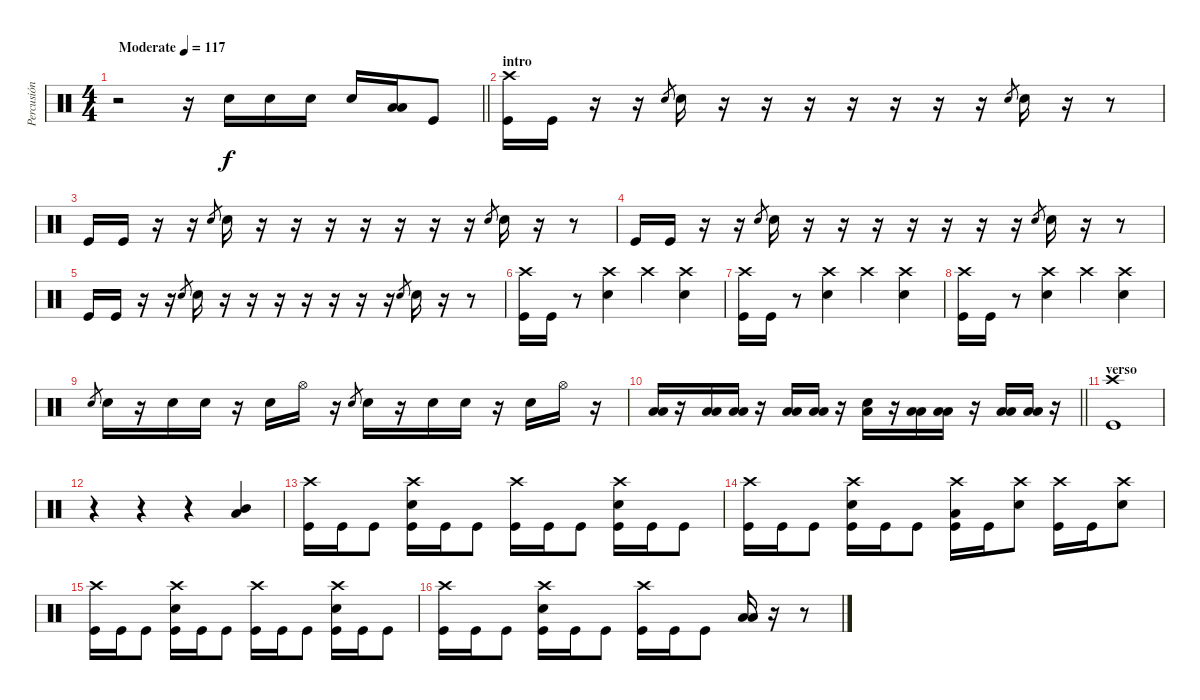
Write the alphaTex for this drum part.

\track ("Percusión" "Percusión") {instrument percussion}
\staff {score}
\articulation defaults
\ts (4 4)
\tempo (117 "Moderate")
\clef neutral
\barLineRight lightlight
\ks c
r.2{dy f} r.16 "Electric Snare (hit)".16 "Electric Snare (hit)".16 "Electric Snare (hit)".16 "Electric Snare (hit)".16 ("Low Tom (hit)" "Low Floor Tom (hit)").16 "Kick (hit)".8 |
\section ("" "intro")
\ks aminor
("Crash high (hit)" "Kick (hit)").16 "Kick (hit)".16 r.16 r.16 "Electric Snare (hit)".8{gr} "Electric Snare (hit)".16 r.16 r.16 r.16 r.16 r.16 r.16 r.16 "Electric Snare (hit)".8{gr} "Electric Snare (hit)".16 r.16 r.8 |
"Kick (hit)".16 "Kick (hit)".16 r.16 r.16 "Electric Snare (hit)".8{gr} "Electric Snare (hit)".16 r.16 r.16 r.16 r.16 r.16 r.16 r.16 "Electric Snare (hit)".8{gr} "Electric Snare (hit)".16 r.16 r.8 |
"Kick (hit)".16 "Kick (hit)".16 r.16 r.16 "Electric Snare (hit)".8{gr} "Electric Snare (hit)".16 r.16 r.16 r.16 r.16 r.16 r.16 r.16 "Electric Snare (hit)".8{gr} "Electric Snare (hit)".16 r.16 r.8 |
"Kick (hit)".16 "Kick (hit)".16 r.16 r.16 "Electric Snare (hit)".8{gr} "Electric Snare (hit)".16 r.16 r.16 r.16 r.16 r.16 r.16 r.16 "Electric Snare (hit)".8{gr} "Electric Snare (hit)".16 r.16 r.8 |
("Crash high (hit)" "Kick (hit)").16 "Kick (hit)".16 r.8 ("Crash high (hit)" "Electric Snare (hit)").4 "Crash high (hit)".4 ("Crash high (hit)" "Electric Snare (hit)").4 |
("Crash high (hit)" "Kick (hit)").16 "Kick (hit)".16 r.8 ("Crash high (hit)" "Electric Snare (hit)").4 "Crash high (hit)".4 ("Crash high (hit)" "Electric Snare (hit)").4 |
("Crash high (hit)" "Kick (hit)").16 "Kick (hit)".16 r.8 ("Crash high (hit)" "Electric Snare (hit)").4 "Crash high (hit)".4 ("Crash high (hit)" "Electric Snare (hit)").4 |
"Electric Snare (hit)".8{gr} "Electric Snare (hit)".16 r.16 "Electric Snare (hit)".16 "Electric Snare (hit)".16 r.16 "Electric Snare (hit)".16 "Hi-Hat (open)".16 r.16 "Electric Snare (hit)".8{gr} "Electric Snare (hit)".16 r.16 "Electric Snare (hit)".16 "Electric Snare (hit)".16 r.16 "Electric Snare (hit)".16 "Hi-Hat (open)".16 r.16 |
\barLineRight lightlight
("Low Tom (hit)" "Low Floor Tom (hit)").16 r.16 ("Low Tom (hit)" "Low Floor Tom (hit)").16 ("Low Tom (hit)" "Low Floor Tom (hit)").16 r.16 ("Low Tom (hit)" "Low Floor Tom (hit)").16 ("Low Tom (hit)" "Low Floor Tom (hit)").16 r.16 ("Electric Snare (hit)" "Low Floor Tom (hit)").16 r.16 ("Low Tom (hit)" "Low Floor Tom (hit)").16 ("Low Tom (hit)" "Low Floor Tom (hit)").16 r.16 ("Low Tom (hit)" "Low Floor Tom (hit)").16 ("Low Tom (hit)" "Low Floor Tom (hit)").16 r.16 |
\section ("" "verso")
("Crash high (hit)" "Kick (hit)").1 |
r.4 r.4 r.4 ("Mid Tom (hit)" "Low Floor Tom (hit)").4 |
("Crash high (hit)" "Kick (hit)").16 "Kick (hit)".16 "Kick (hit)".8 ("Crash high (hit)" "Electric Snare (hit)" "Kick (hit)").16 "Kick (hit)".16 "Kick (hit)".8 ("Crash high (hit)" "Kick (hit)").16 "Kick (hit)".16 "Kick (hit)".8 ("Crash high (hit)" "Electric Snare (hit)" "Kick (hit)").16 "Kick (hit)".16 "Kick (hit)".8 |
("Crash high (hit)" "Kick (hit)").16 "Kick (hit)".16 "Kick (hit)".8 ("Crash high (hit)" "Electric Snare (hit)" "Kick (hit)").16 "Kick (hit)".16 "Kick (hit)".8 ("Crash high (hit)" "Low Floor Tom (hit)" "Kick (hit)").16 "Kick (hit)".16 ("Crash high (hit)" "Electric Snare (hit)").8 ("Crash high (hit)" "Kick (hit)").16 "Kick (hit)".16 ("Crash high (hit)" "Electric Snare (hit)").8 |
("Crash high (hit)" "Kick (hit)").16 "Kick (hit)".16 "Kick (hit)".8 ("Crash high (hit)" "Electric Snare (hit)" "Kick (hit)").16 "Kick (hit)".16 "Kick (hit)".8 ("Crash high (hit)" "Kick (hit)").16 "Kick (hit)".16 "Kick (hit)".8 ("Crash high (hit)" "Electric Snare (hit)" "Kick (hit)").16 "Kick (hit)".16 "Kick (hit)".8 |
("Crash high (hit)" "Kick (hit)").16 "Kick (hit)".16 "Kick (hit)".8 ("Crash high (hit)" "Electric Snare (hit)" "Kick (hit)").16 "Kick (hit)".16 "Kick (hit)".8 ("Crash high (hit)" "Kick (hit)").16 "Kick (hit)".16 "Kick (hit)".8 ("Low Tom (hit)" "Low Floor Tom (hit)").16 r.16 r.8
